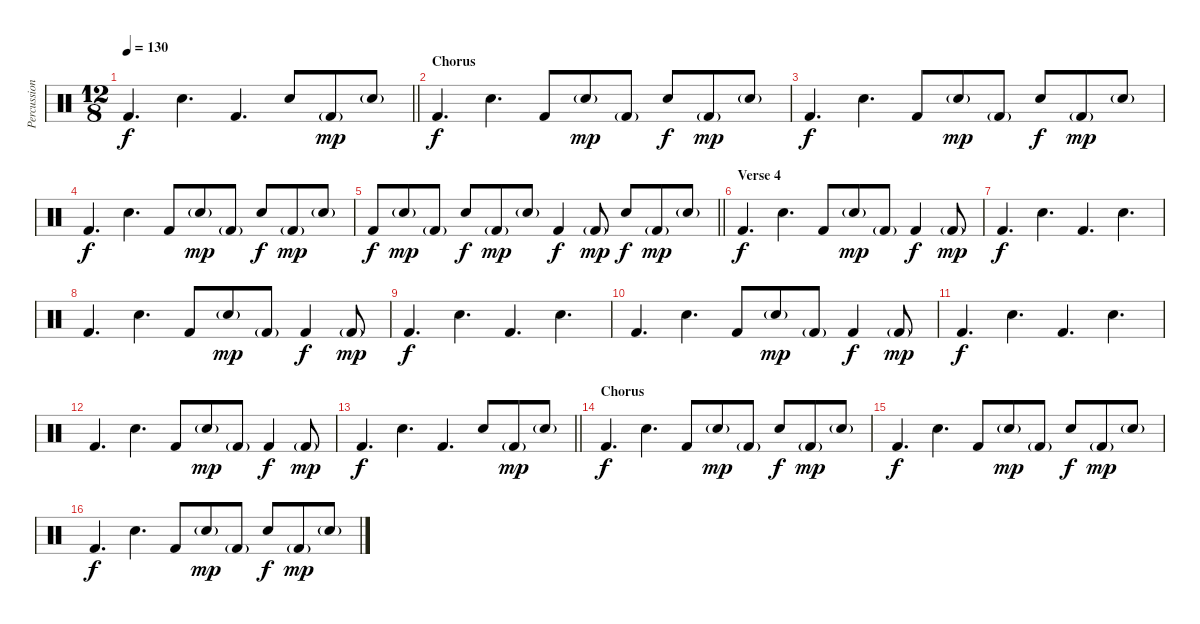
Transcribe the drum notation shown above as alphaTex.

\track ("Percussion" "Percussion") {instrument percussion}
\staff {score}
\articulation defaults
\ts (12 8)
\tempo 130
\clef neutral
\barLineRight lightlight
\ks c "Kick (hit) 2".4{d dy f} "Snare (hit) 2".4{d} "Kick (hit) 2".4{d} "Snare (hit) 2".8 "Kick (hit) 2"{g}.8{dy mp} "Snare (hit) 2"{g}.8
|
\section ("" "Chorus")
"Kick (hit) 2".4{d dy f} "Snare (hit) 2".4{d} "Kick (hit) 2".8 "Snare (hit) 2"{g}.8{dy mp} "Kick (hit) 2"{g}.8 "Snare (hit) 2".8{dy f} "Kick (hit) 2"{g}.8{dy mp} "Snare (hit) 2"{g}.8 |
"Kick (hit) 2".4{d dy f} "Snare (hit) 2".4{d} "Kick (hit) 2".8 "Snare (hit) 2"{g}.8{dy mp} "Kick (hit) 2"{g}.8 "Snare (hit) 2".8{dy f} "Kick (hit) 2"{g}.8{dy mp} "Snare (hit) 2"{g}.8 |
"Kick (hit) 2".4{d dy f} "Snare (hit) 2".4{d} "Kick (hit) 2".8 "Snare (hit) 2"{g}.8{dy mp} "Kick (hit) 2"{g}.8 "Snare (hit) 2".8{dy f} "Kick (hit) 2"{g}.8{dy mp} "Snare (hit) 2"{g}.8 |
\barLineRight lightlight "Kick (hit) 2".8{dy f} "Snare (hit) 2"{g}.8{dy mp} "Kick (hit) 2"{g}.8 "Snare (hit) 2".8{dy f} "Kick (hit) 2"{g}.8{dy mp} "Snare (hit) 2"{g}.8 "Kick (hit) 2".4{dy f} "Kick (hit) 2"{g}.8{dy mp} "Snare (hit) 2".8{dy f} "Kick (hit) 2"{g}.8{dy mp} "Snare (hit) 2"{g}.8
|
\section ("" "Verse 4")
"Kick (hit) 2".4{d dy f} "Snare (hit) 2".4{d} "Kick (hit) 2".8 "Snare (hit) 2"{g}.8{dy mp} "Kick (hit) 2"{g}.8 "Kick (hit) 2".4{dy f} "Kick (hit) 2"{g}.8{dy mp} |
"Kick (hit) 2".4{d dy f} "Snare (hit) 2".4{d} "Kick (hit) 2".4{d} "Snare (hit) 2".4{d} |
"Kick (hit) 2".4{d} "Snare (hit) 2".4{d} "Kick (hit) 2".8 "Snare (hit) 2"{g}.8{dy mp} "Kick (hit) 2"{g}.8 "Kick (hit) 2".4{dy f} "Kick (hit) 2"{g}.8{dy mp} |
"Kick (hit) 2".4{d dy f} "Snare (hit) 2".4{d} "Kick (hit) 2".4{d} "Snare (hit) 2".4{d} |
"Kick (hit) 2".4{d} "Snare (hit) 2".4{d} "Kick (hit) 2".8 "Snare (hit) 2"{g}.8{dy mp} "Kick (hit) 2"{g}.8 "Kick (hit) 2".4{dy f} "Kick (hit) 2"{g}.8{dy mp} |
"Kick (hit) 2".4{d dy f} "Snare (hit) 2".4{d} "Kick (hit) 2".4{d} "Snare (hit) 2".4{d} |
"Kick (hit) 2".4{d} "Snare (hit) 2".4{d} "Kick (hit) 2".8 "Snare (hit) 2"{g}.8{dy mp} "Kick (hit) 2"{g}.8 "Kick (hit) 2".4{dy f} "Kick (hit) 2"{g}.8{dy mp} |
\barLineRight lightlight "Kick (hit) 2".4{d dy f} "Snare (hit) 2".4{d} "Kick (hit) 2".4{d} "Snare (hit) 2".8 "Kick (hit) 2"{g}.8{dy mp} "Snare (hit) 2"{g}.8
|
\section ("" "Chorus")
"Kick (hit) 2".4{d dy f} "Snare (hit) 2".4{d} "Kick (hit) 2".8 "Snare (hit) 2"{g}.8{dy mp} "Kick (hit) 2"{g}.8 "Snare (hit) 2".8{dy f} "Kick (hit) 2"{g}.8{dy mp} "Snare (hit) 2"{g}.8 |
"Kick (hit) 2".4{d dy f} "Snare (hit) 2".4{d} "Kick (hit) 2".8 "Snare (hit) 2"{g}.8{dy mp} "Kick (hit) 2"{g}.8 "Snare (hit) 2".8{dy f} "Kick (hit) 2"{g}.8{dy mp} "Snare (hit) 2"{g}.8 |
"Kick (hit) 2".4{d dy f} "Snare (hit) 2".4{d} "Kick (hit) 2".8 "Snare (hit) 2"{g}.8{dy mp} "Kick (hit) 2"{g}.8 "Snare (hit) 2".8{dy f} "Kick (hit) 2"{g}.8{dy mp} "Snare (hit) 2"{g}.8
